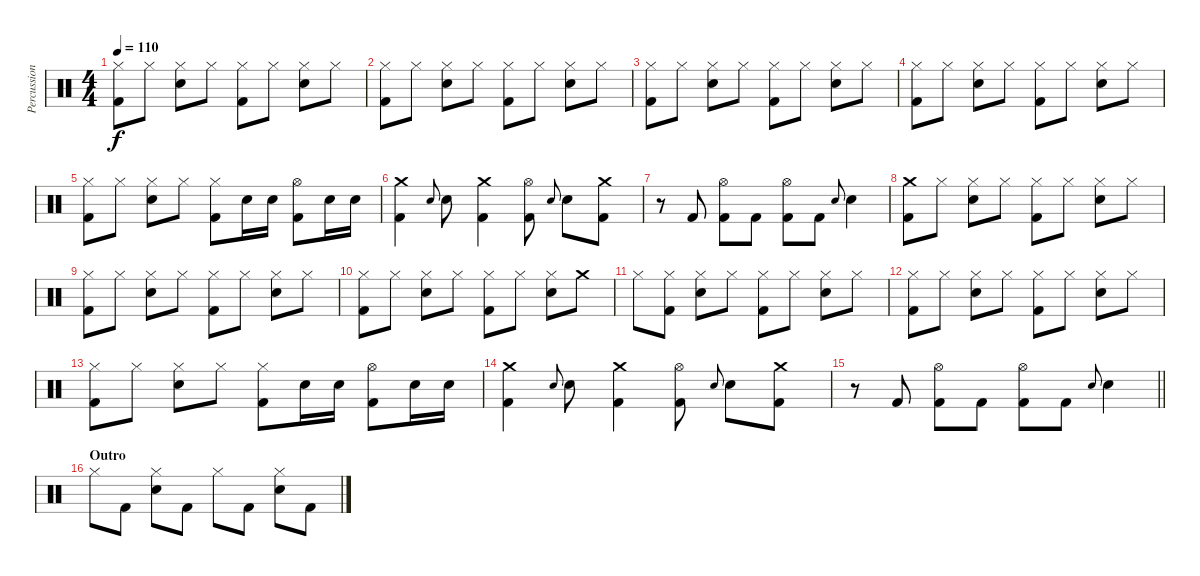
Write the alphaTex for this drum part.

\track ("Percussion" "Percussion") {instrument percussion}
\staff {score}
\articulation defaults
\ts (4 4)
\tempo 110
\clef neutral
\ks aminor
("Hi-Hat (closed)" "Kick (hit) 2").8{dy f} "Hi-Hat (closed)".8 ("Hi-Hat (closed)" "Electric Snare (hit)").8 "Hi-Hat (closed)".8 ("Hi-Hat (closed)" "Kick (hit) 2").8 "Hi-Hat (closed)".8 ("Hi-Hat (closed)" "Electric Snare (hit)").8 "Hi-Hat (closed)".8 |
("Hi-Hat (closed)" "Kick (hit) 2").8 "Hi-Hat (closed)".8 ("Hi-Hat (closed)" "Electric Snare (hit)").8 "Hi-Hat (closed)".8 ("Hi-Hat (closed)" "Kick (hit) 2").8 "Hi-Hat (closed)".8 ("Hi-Hat (closed)" "Electric Snare (hit)").8 "Hi-Hat (closed)".8 |
("Hi-Hat (closed)" "Kick (hit) 2").8 "Hi-Hat (closed)".8 ("Hi-Hat (closed)" "Electric Snare (hit)").8 "Hi-Hat (closed)".8 ("Hi-Hat (closed)" "Kick (hit) 2").8 "Hi-Hat (closed)".8 ("Hi-Hat (closed)" "Electric Snare (hit)").8 "Hi-Hat (closed)".8 |
("Hi-Hat (closed)" "Kick (hit) 2").8 "Hi-Hat (closed)".8 ("Hi-Hat (closed)" "Electric Snare (hit)").8 "Hi-Hat (closed)".8 ("Hi-Hat (closed)" "Kick (hit) 2").8 "Hi-Hat (closed)".8 ("Hi-Hat (closed)" "Electric Snare (hit)").8 "Hi-Hat (closed)".8 |
("Hi-Hat (closed)" "Kick (hit) 2").8 "Hi-Hat (closed)".8 ("Hi-Hat (closed)" "Electric Snare (hit)").8 "Hi-Hat (closed)".8 ("Hi-Hat (closed)" "Kick (hit) 2").8 "Electric Snare (hit)".16 "Electric Snare (hit)".16 ("Hi-Hat (open)" "Kick (hit) 2").8 "Electric Snare (hit)".16 "Electric Snare (hit)".16 |
("Crash medium (hit)" "Kick (hit) 2").4 "Electric Snare (hit)".8{gr onbeat} "Electric Snare (hit)".8 ("Crash medium (hit)" "Kick (hit) 2").4 ("Hi-Hat (open)" "Kick (hit) 2").8 "Electric Snare (hit)".8{gr onbeat} "Electric Snare (hit)".8 ("Crash medium (hit)" "Kick (hit) 2").8 |
r.8 "Kick (hit) 2".8 ("Hi-Hat (open)" "Kick (hit) 2").8 "Kick (hit) 2".8 ("Hi-Hat (open)" "Kick (hit) 2").8 "Kick (hit) 2".8 "Electric Snare (hit)".8{gr onbeat} "Electric Snare (hit)".4 |
("Crash medium (hit)" "Kick (hit) 2").8 "Hi-Hat (closed)".8 ("Hi-Hat (closed)" "Electric Snare (hit)").8 "Hi-Hat (closed)".8 ("Hi-Hat (closed)" "Kick (hit) 2").8 "Hi-Hat (closed)".8 ("Hi-Hat (closed)" "Electric Snare (hit)").8 "Hi-Hat (closed)".8 |
("Hi-Hat (closed)" "Kick (hit) 2").8 "Hi-Hat (closed)".8 ("Hi-Hat (closed)" "Electric Snare (hit)").8 "Hi-Hat (closed)".8 ("Hi-Hat (closed)" "Kick (hit) 2").8 "Hi-Hat (closed)".8 ("Hi-Hat (closed)" "Electric Snare (hit)").8 "Hi-Hat (closed)".8 |
("Hi-Hat (closed)" "Kick (hit) 2").8 "Hi-Hat (closed)".8 ("Hi-Hat (closed)" "Electric Snare (hit)").8 "Hi-Hat (closed)".8 ("Hi-Hat (closed)" "Kick (hit) 2").8 "Hi-Hat (closed)".8 ("Hi-Hat (closed)" "Electric Snare (hit)").8 "Crash medium (hit)".8 |
"Hi-Hat (closed)".8 ("Hi-Hat (closed)" "Kick (hit) 2").8 ("Hi-Hat (closed)" "Electric Snare (hit)").8 "Hi-Hat (closed)".8 ("Hi-Hat (closed)" "Kick (hit) 2").8 "Hi-Hat (closed)".8 ("Hi-Hat (closed)" "Electric Snare (hit)").8 "Hi-Hat (closed)".8 |
("Hi-Hat (closed)" "Kick (hit) 2").8 "Hi-Hat (closed)".8 ("Hi-Hat (closed)" "Electric Snare (hit)").8 "Hi-Hat (closed)".8 ("Hi-Hat (closed)" "Kick (hit) 2").8 "Hi-Hat (closed)".8 ("Hi-Hat (closed)" "Electric Snare (hit)").8 "Hi-Hat (closed)".8 |
("Hi-Hat (closed)" "Kick (hit) 2").8 "Hi-Hat (closed)".8 ("Hi-Hat (closed)" "Electric Snare (hit)").8 "Hi-Hat (closed)".8 ("Hi-Hat (closed)" "Kick (hit) 2").8 "Electric Snare (hit)".16 "Electric Snare (hit)".16 ("Hi-Hat (open)" "Kick (hit) 2").8 "Electric Snare (hit)".16 "Electric Snare (hit)".16 |
("Crash medium (hit)" "Kick (hit) 2").4 "Electric Snare (hit)".8{gr onbeat} "Electric Snare (hit)".8 ("Crash medium (hit)" "Kick (hit) 2").4 ("Hi-Hat (open)" "Kick (hit) 2").8 "Electric Snare (hit)".8{gr onbeat} "Electric Snare (hit)".8 ("Crash medium (hit)" "Kick (hit) 2").8 |
\barLineRight lightlight
r.8 "Kick (hit) 2".8 ("Hi-Hat (open)" "Kick (hit) 2").8 "Kick (hit) 2".8 ("Hi-Hat (open)" "Kick (hit) 2").8 "Kick (hit) 2".8 "Electric Snare (hit)".8{gr onbeat} "Electric Snare (hit)".4 |
\section ("" "Outro")
"Hi-Hat (closed)".8 "Kick (hit) 2".8 ("Hi-Hat (closed)" "Electric Snare (hit)").8 "Kick (hit) 2".8 "Hi-Hat (closed)".8 "Kick (hit) 2".8 ("Hi-Hat (closed)" "Electric Snare (hit)").8 "Kick (hit) 2".8
